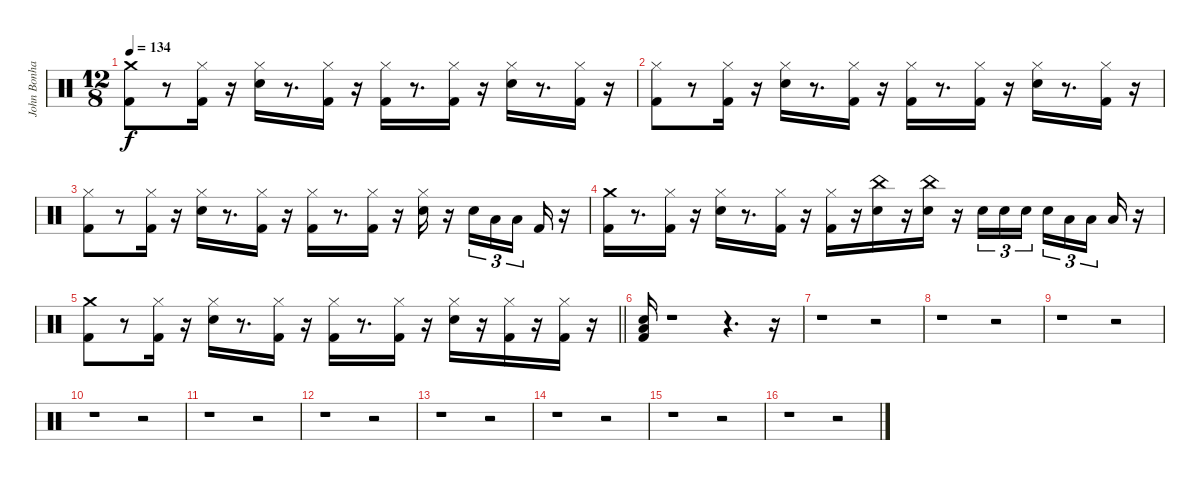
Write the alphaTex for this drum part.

\track ("John Bonham - Drums" "John Bonha") {instrument percussion}
\staff {score}
\articulation defaults
\ts (12 8)
\tempo 134
\clef neutral
\ks c
("Kick (hit) 2" "Crash medium (hit)").8{dy f} r.8 ("Kick (hit) 2" "Hi-Hat (closed)").16 r.16 ("Hi-Hat (closed)" "Electric Snare (hit)").16 r.8{d} ("Hi-Hat (closed)" "Kick (hit) 2").16 r.16 ("Hi-Hat (closed)" "Kick (hit) 2").16 r.8{d} ("Hi-Hat (closed)" "Kick (hit) 2").16 r.16 ("Hi-Hat (closed)" "Electric Snare (hit)").16 r.8{d} ("Hi-Hat (closed)" "Kick (hit) 2").16 r.16 |
("Kick (hit) 2" "Hi-Hat (closed)").8 r.8 ("Kick (hit) 2" "Hi-Hat (closed)").16 r.16 ("Hi-Hat (closed)" "Electric Snare (hit)").16 r.8{d} ("Hi-Hat (closed)" "Kick (hit) 2").16 r.16 ("Hi-Hat (closed)" "Kick (hit) 2").16 r.8{d} ("Hi-Hat (closed)" "Kick (hit) 2").16 r.16 ("Hi-Hat (closed)" "Electric Snare (hit)").16 r.8{d} ("Hi-Hat (closed)" "Kick (hit) 2").16 r.16 |
("Kick (hit) 2" "Hi-Hat (closed)").8 r.8 ("Kick (hit) 2" "Hi-Hat (closed)").16 r.16 ("Hi-Hat (closed)" "Electric Snare (hit)").16 r.8{d} ("Hi-Hat (closed)" "Kick (hit) 2").16 r.16 ("Hi-Hat (closed)" "Kick (hit) 2").16 r.8{d} ("Hi-Hat (closed)" "Kick (hit) 2").16 r.16 ("Hi-Hat (closed)" "Electric Snare (hit)").16 r.16 "Electric Snare (hit)".16{tu (3 2)} "Low Tom (hit)".16{tu (3 2)} "Low Floor Tom (hit)".16{tu (3 2) beam splitsecondary} "Kick (hit) 2".16 r.16 |
("Crash medium (hit)" "Kick (hit) 2").16 r.8{d} ("Hi-Hat (closed)" "Kick (hit) 2").16 r.16 ("Hi-Hat (closed)" "Electric Snare (hit)").16 r.8{d} ("Hi-Hat (closed)" "Kick (hit) 2").16 r.16 ("Hi-Hat (closed)" "Kick (hit) 2").16 r.16 ("China (hit)" "Electric Snare (hit)").16 r.16 ("China (hit)" "Electric Snare (hit)").16 r.16 "Electric Snare (hit)".16{tu (3 2)} "Electric Snare (hit)".16{tu (3 2)} "Electric Snare (hit)".16{tu (3 2) beam splitsecondary} "Electric Snare (hit)".16{tu (3 2)} "Low Tom (hit)".16{tu (3 2)} "Low Tom (hit)".16{tu (3 2) beam splitsecondary} "Low Floor Tom (hit)".16 r.16 |
\barLineRight lightlight
("Kick (hit) 2" "Crash medium (hit)").8 r.8 ("Kick (hit) 2" "Hi-Hat (closed)").16 r.16 ("Hi-Hat (closed)" "Electric Snare (hit)").16 r.8{d} ("Hi-Hat (closed)" "Kick (hit) 2").16 r.16 ("Hi-Hat (closed)" "Kick (hit) 2").16 r.8{d} ("Hi-Hat (closed)" "Kick (hit) 2").16 r.16 ("Hi-Hat (closed)" "Electric Snare (hit)").16 r.16 ("Kick (hit) 2" "Hi-Hat (closed)").16 r.16 ("Hi-Hat (closed)" "Kick (hit) 2").16 r.16 |
("Kick (hit) 2" "Electric Snare (hit)" "Low Tom (hit)").16 r.1 r.4{d} r.16 |
r.1 r.2 |
r.1 r.2 |
r.1 r.2 |
r.1 r.2 |
r.1 r.2 |
r.1 r.2 |
r.1 r.2 |
r.1 r.2 |
r.1 r.2 |
r.1 r.2
